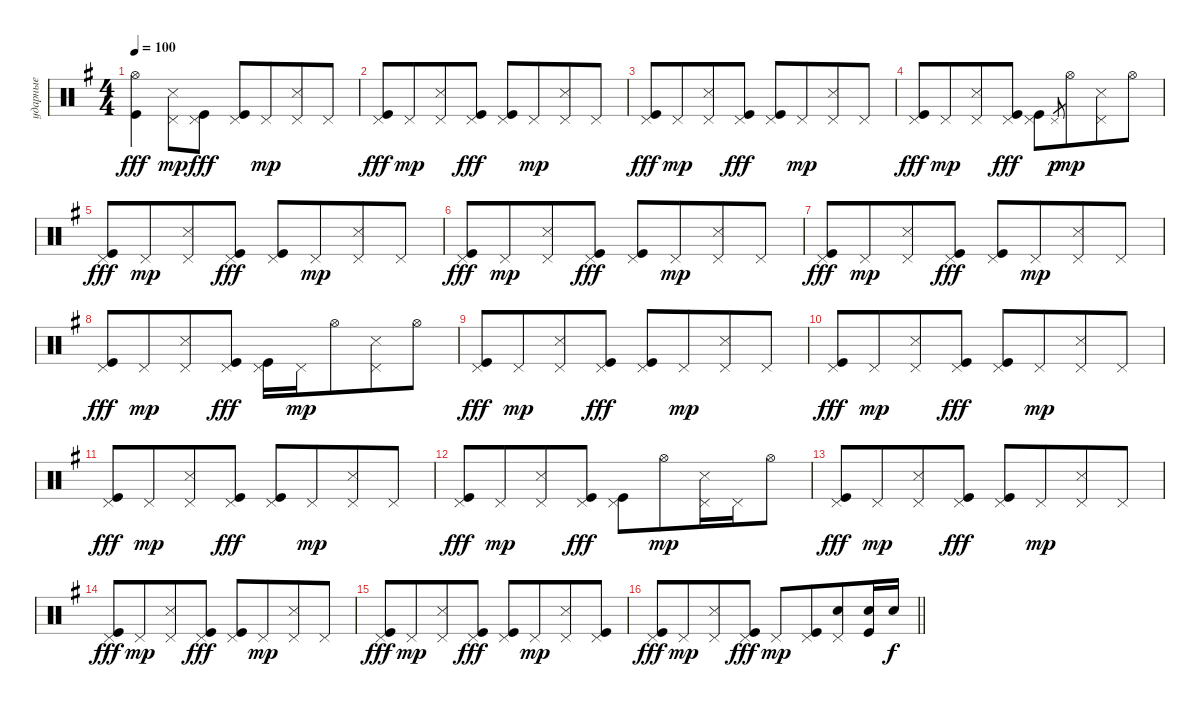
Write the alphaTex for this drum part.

\track ("ударные" "ударные") {instrument percussion}
\staff {score}
\articulation defaults
\ts (4 4)
\section ("" "")
\tempo 100
\clef neutral
\ks eminor
("Hi-Hat (open)" "Kick (hit)").4{dy fff beam merge} ("Pedal Hi-Hat (hit)" "Snare (side stick) 3").8{dy mp} ("Pedal Hi-Hat (hit)" "Kick (hit)").8{dy fff} ("Pedal Hi-Hat (hit)" "Kick (hit)").8 "Pedal Hi-Hat (hit)".8{dy mp beam merge} ("Pedal Hi-Hat (hit)" "Snare (side stick) 3").8 "Pedal Hi-Hat (hit)".8 |
("Pedal Hi-Hat (hit)" "Kick (hit)").8{dy fff} "Pedal Hi-Hat (hit)".8{dy mp beam merge} ("Pedal Hi-Hat (hit)" "Snare (side stick) 3").8 ("Pedal Hi-Hat (hit)" "Kick (hit)").8{dy fff} ("Pedal Hi-Hat (hit)" "Kick (hit)").8 "Pedal Hi-Hat (hit)".8{dy mp beam merge} ("Pedal Hi-Hat (hit)" "Snare (side stick) 3").8 "Pedal Hi-Hat (hit)".8 |
("Pedal Hi-Hat (hit)" "Kick (hit)").8{dy fff} "Pedal Hi-Hat (hit)".8{dy mp beam merge} ("Pedal Hi-Hat (hit)" "Snare (side stick) 3").8 ("Pedal Hi-Hat (hit)" "Kick (hit)").8{dy fff} ("Pedal Hi-Hat (hit)" "Kick (hit)").8 "Pedal Hi-Hat (hit)".8{dy mp beam merge} ("Pedal Hi-Hat (hit)" "Snare (side stick) 3").8 "Pedal Hi-Hat (hit)".8 |
("Pedal Hi-Hat (hit)" "Kick (hit)").8{dy fff} "Pedal Hi-Hat (hit)".8{dy mp beam merge} ("Pedal Hi-Hat (hit)" "Snare (side stick) 3").8 ("Pedal Hi-Hat (hit)" "Kick (hit)").8{dy fff} ("Pedal Hi-Hat (hit)" "Kick (hit)").8 "Pedal Hi-Hat (hit)"{h}.8{gr dy p} "Hi-Hat (open)".8{dy mp beam merge} ("Pedal Hi-Hat (hit)" "Snare (side stick) 3").8 "Hi-Hat (open)".8 |
("Pedal Hi-Hat (hit)" "Kick (hit)").8{dy fff} "Pedal Hi-Hat (hit)".8{dy mp beam merge} ("Pedal Hi-Hat (hit)" "Snare (side stick) 3").8 ("Pedal Hi-Hat (hit)" "Kick (hit)").8{dy fff} ("Pedal Hi-Hat (hit)" "Kick (hit)").8 "Pedal Hi-Hat (hit)".8{dy mp beam merge} ("Pedal Hi-Hat (hit)" "Snare (side stick) 3").8 "Pedal Hi-Hat (hit)".8 |
("Pedal Hi-Hat (hit)" "Kick (hit)").8{dy fff} "Pedal Hi-Hat (hit)".8{dy mp beam merge} ("Pedal Hi-Hat (hit)" "Snare (side stick) 3").8 ("Pedal Hi-Hat (hit)" "Kick (hit)").8{dy fff} ("Pedal Hi-Hat (hit)" "Kick (hit)").8 "Pedal Hi-Hat (hit)".8{dy mp beam merge} ("Pedal Hi-Hat (hit)" "Snare (side stick) 3").8 "Pedal Hi-Hat (hit)".8 |
("Pedal Hi-Hat (hit)" "Kick (hit)").8{dy fff} "Pedal Hi-Hat (hit)".8{dy mp beam merge} ("Pedal Hi-Hat (hit)" "Snare (side stick) 3").8 ("Pedal Hi-Hat (hit)" "Kick (hit)").8{dy fff} ("Pedal Hi-Hat (hit)" "Kick (hit)").8 "Pedal Hi-Hat (hit)".8{dy mp beam merge} ("Pedal Hi-Hat (hit)" "Snare (side stick) 3").8 "Pedal Hi-Hat (hit)".8 |
("Pedal Hi-Hat (hit)" "Kick (hit)").8{dy fff} "Pedal Hi-Hat (hit)".8{dy mp beam merge} ("Pedal Hi-Hat (hit)" "Snare (side stick) 3").8 ("Pedal Hi-Hat (hit)" "Kick (hit)").8{dy fff} ("Pedal Hi-Hat (hit)" "Kick (hit)").16 "Pedal Hi-Hat (hit)".16{dy mp} "Hi-Hat (open)".8{beam merge} ("Pedal Hi-Hat (hit)" "Snare (side stick) 3").8 "Hi-Hat (open)".8 |
("Pedal Hi-Hat (hit)" "Kick (hit)").8{dy fff} "Pedal Hi-Hat (hit)".8{dy mp beam merge} ("Pedal Hi-Hat (hit)" "Snare (side stick) 3").8 ("Pedal Hi-Hat (hit)" "Kick (hit)").8{dy fff} ("Pedal Hi-Hat (hit)" "Kick (hit)").8 "Pedal Hi-Hat (hit)".8{dy mp beam merge} ("Pedal Hi-Hat (hit)" "Snare (side stick) 3").8 "Pedal Hi-Hat (hit)".8 |
("Pedal Hi-Hat (hit)" "Kick (hit)").8{dy fff} "Pedal Hi-Hat (hit)".8{dy mp beam merge} ("Pedal Hi-Hat (hit)" "Snare (side stick) 3").8 ("Pedal Hi-Hat (hit)" "Kick (hit)").8{dy fff} ("Pedal Hi-Hat (hit)" "Kick (hit)").8 "Pedal Hi-Hat (hit)".8{dy mp beam merge} ("Pedal Hi-Hat (hit)" "Snare (side stick) 3").8 "Pedal Hi-Hat (hit)".8 |
("Pedal Hi-Hat (hit)" "Kick (hit)").8{dy fff} "Pedal Hi-Hat (hit)".8{dy mp beam merge} ("Pedal Hi-Hat (hit)" "Snare (side stick) 3").8 ("Pedal Hi-Hat (hit)" "Kick (hit)").8{dy fff} ("Pedal Hi-Hat (hit)" "Kick (hit)").8 "Pedal Hi-Hat (hit)".8{dy mp beam merge} ("Pedal Hi-Hat (hit)" "Snare (side stick) 3").8 "Pedal Hi-Hat (hit)".8 |
("Pedal Hi-Hat (hit)" "Kick (hit)").8{dy fff} "Pedal Hi-Hat (hit)".8{dy mp beam merge} ("Pedal Hi-Hat (hit)" "Snare (side stick) 3").8 ("Pedal Hi-Hat (hit)" "Kick (hit)").8{dy fff} ("Pedal Hi-Hat (hit)" "Kick (hit)").8 "Hi-Hat (open)".8{dy mp beam merge} ("Pedal Hi-Hat (hit)" "Snare (side stick) 3").16 "Pedal Hi-Hat (hit)".16 "Hi-Hat (open)".8 |
("Pedal Hi-Hat (hit)" "Kick (hit)").8{dy fff} "Pedal Hi-Hat (hit)".8{dy mp beam merge} ("Pedal Hi-Hat (hit)" "Snare (side stick) 3").8 ("Pedal Hi-Hat (hit)" "Kick (hit)").8{dy fff} ("Pedal Hi-Hat (hit)" "Kick (hit)").8 "Pedal Hi-Hat (hit)".8{dy mp beam merge} ("Pedal Hi-Hat (hit)" "Snare (side stick) 3").8 "Pedal Hi-Hat (hit)".8 |
("Pedal Hi-Hat (hit)" "Kick (hit)").8{dy fff} "Pedal Hi-Hat (hit)".8{dy mp beam merge} ("Pedal Hi-Hat (hit)" "Snare (side stick) 3").8 ("Pedal Hi-Hat (hit)" "Kick (hit)").8{dy fff} ("Pedal Hi-Hat (hit)" "Kick (hit)").8 "Pedal Hi-Hat (hit)".8{dy mp beam merge} ("Pedal Hi-Hat (hit)" "Snare (side stick) 3").8 "Pedal Hi-Hat (hit)".8 |
("Pedal Hi-Hat (hit)" "Kick (hit)").8{dy fff} "Pedal Hi-Hat (hit)".8{dy mp beam merge} ("Pedal Hi-Hat (hit)" "Snare (side stick) 3").8 ("Pedal Hi-Hat (hit)" "Kick (hit)").8{dy fff} ("Pedal Hi-Hat (hit)" "Kick (hit)").8 "Pedal Hi-Hat (hit)".8{dy mp beam merge} ("Pedal Hi-Hat (hit)" "Snare (side stick) 3").8 ("Pedal Hi-Hat (hit)" "Kick (hit)").8 |
\barLineRight lightlight
("Pedal Hi-Hat (hit)" "Kick (hit)").8{dy fff} "Pedal Hi-Hat (hit)".8{dy mp beam merge} ("Pedal Hi-Hat (hit)" "Snare (side stick) 3").8 ("Pedal Hi-Hat (hit)" "Kick (hit)").8{dy fff} "Pedal Hi-Hat (hit)".8{dy mp} ("Pedal Hi-Hat (hit)" "Kick (hit)").8{beam merge} ("Pedal Hi-Hat (hit)" "Snare (hit) 2").8 ("Snare (hit) 2" "Kick (hit)").16 "Snare (hit) 2".16{dy f}
